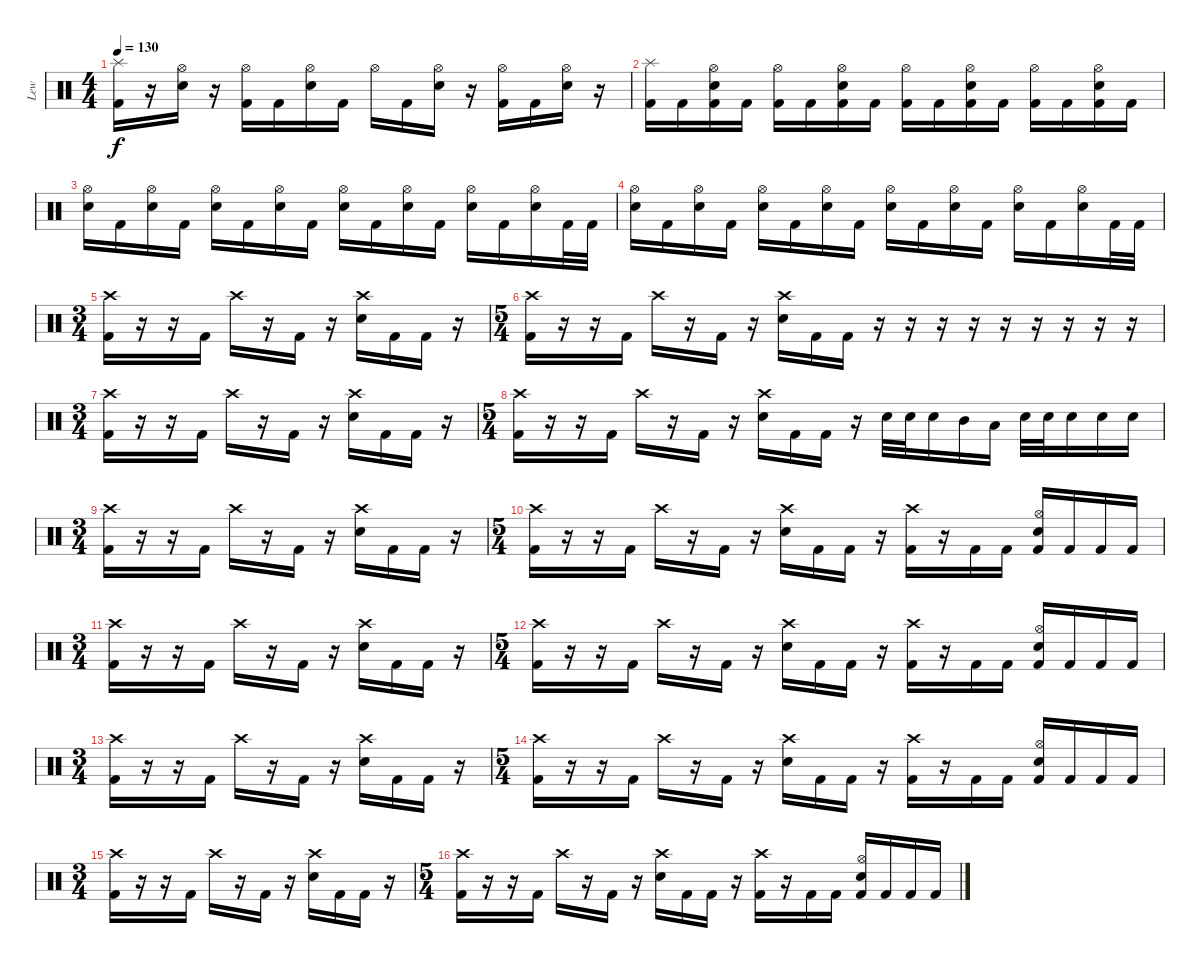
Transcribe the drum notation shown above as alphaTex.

\track ("Lew" "Lew") {instrument percussion}
\staff {score}
\articulation defaults
\ts (4 4)
\tempo 130
\clef neutral
\ks c
("Splash (hit)" "Kick (hit) 2").16{dy f} r.16 ("Hi-Hat (open)" "Electric Snare (hit)").16 r.16 ("Hi-Hat (open)" "Kick (hit) 2").16 "Kick (hit) 2".16 ("Hi-Hat (open)" "Electric Snare (hit)").16 "Kick (hit) 2".16 "Hi-Hat (open)".16 "Kick (hit) 2".16 ("Hi-Hat (open)" "Electric Snare (hit)").16 r.16 ("Hi-Hat (open)" "Kick (hit) 2").16 "Kick (hit) 2".16 ("Hi-Hat (open)" "Electric Snare (hit)").16 r.16 |
("Splash (hit)" "Kick (hit) 2").16 "Kick (hit) 2".16 ("Hi-Hat (open)" "Electric Snare (hit)" "Kick (hit) 2").16 "Kick (hit) 2".16 ("Hi-Hat (open)" "Kick (hit) 2").16 "Kick (hit) 2".16 ("Hi-Hat (open)" "Electric Snare (hit)" "Kick (hit) 2").16 "Kick (hit) 2".16 ("Hi-Hat (open)" "Kick (hit) 2").16 "Kick (hit) 2".16 ("Hi-Hat (open)" "Electric Snare (hit)" "Kick (hit) 2").16 "Kick (hit) 2".16 ("Hi-Hat (open)" "Kick (hit) 2").16 "Kick (hit) 2".16 ("Hi-Hat (open)" "Electric Snare (hit)" "Kick (hit) 2").16 "Kick (hit) 2".16 |
("Hi-Hat (open)" "Electric Snare (hit)").16 "Kick (hit) 2".16 ("Hi-Hat (open)" "Electric Snare (hit)").16 "Kick (hit) 2".16 ("Hi-Hat (open)" "Electric Snare (hit)").16 "Kick (hit) 2".16 ("Hi-Hat (open)" "Electric Snare (hit)").16 "Kick (hit) 2".16 ("Hi-Hat (open)" "Electric Snare (hit)").16 "Kick (hit) 2".16 ("Hi-Hat (open)" "Electric Snare (hit)").16 "Kick (hit) 2".16 ("Hi-Hat (open)" "Electric Snare (hit)").16 "Kick (hit) 2".16 ("Hi-Hat (open)" "Electric Snare (hit)").16 "Kick (hit) 2".32 "Kick (hit) 2".32 |
("Hi-Hat (open)" "Electric Snare (hit)").16 "Kick (hit) 2".16 ("Hi-Hat (open)" "Electric Snare (hit)").16 "Kick (hit) 2".16 ("Hi-Hat (open)" "Electric Snare (hit)").16 "Kick (hit) 2".16 ("Hi-Hat (open)" "Electric Snare (hit)").16 "Kick (hit) 2".16 ("Hi-Hat (open)" "Electric Snare (hit)").16 "Kick (hit) 2".16 ("Hi-Hat (open)" "Electric Snare (hit)").16 "Kick (hit) 2".16 ("Hi-Hat (open)" "Electric Snare (hit)").16 "Kick (hit) 2".16 ("Hi-Hat (open)" "Electric Snare (hit)").16 "Kick (hit) 2".32 "Kick (hit) 2".32 |
\ts (3 4)
("Crash high (hit)" "Kick (hit) 2").16 r.16 r.16 "Kick (hit) 2".16 "Crash high (hit)".16 r.16 "Kick (hit) 2".16 r.16 ("Crash high (hit)" "Electric Snare (hit)").16 "Kick (hit) 2".16 "Kick (hit) 2".16 r.16 |
\ts (5 4)
("Crash high (hit)" "Kick (hit) 2").16 r.16 r.16 "Kick (hit) 2".16 "Crash high (hit)".16 r.16 "Kick (hit) 2".16 r.16 ("Crash high (hit)" "Electric Snare (hit)").16 "Kick (hit) 2".16 "Kick (hit) 2".16 r.16 r.16 r.16 r.16 r.16 r.16 r.16 r.16 r.16 |
\ts (3 4)
("Crash high (hit)" "Kick (hit) 2").16 r.16 r.16 "Kick (hit) 2".16 "Crash high (hit)".16 r.16 "Kick (hit) 2".16 r.16 ("Crash high (hit)" "Electric Snare (hit)").16 "Kick (hit) 2".16 "Kick (hit) 2".16 r.16 |
\ts (5 4)
("Crash high (hit)" "Kick (hit) 2").16 r.16 r.16 "Kick (hit) 2".16 "Crash high (hit)".16 r.16 "Kick (hit) 2".16 r.16 ("Crash high (hit)" "Electric Snare (hit)").16 "Kick (hit) 2".16 "Kick (hit) 2".16 r.16 "Electric Snare (hit)".32 "Electric Snare (hit)".32 "Electric Snare (hit)".16 "Mid Tom (hit)".16 "Low Tom (hit)".16 "Electric Snare (hit)".32 "Electric Snare (hit)".32 "Electric Snare (hit)".16 "Electric Snare (hit)".16 "Electric Snare (hit)".16 |
\ts (3 4)
("Crash high (hit)" "Kick (hit) 2").16 r.16 r.16 "Kick (hit) 2".16 "Crash high (hit)".16 r.16 "Kick (hit) 2".16 r.16 ("Crash high (hit)" "Electric Snare (hit)").16 "Kick (hit) 2".16 "Kick (hit) 2".16 r.16 |
\ts (5 4)
("Crash high (hit)" "Kick (hit) 2").16 r.16 r.16 "Kick (hit) 2".16 "Crash high (hit)".16 r.16 "Kick (hit) 2".16 r.16 ("Crash high (hit)" "Electric Snare (hit)").16 "Kick (hit) 2".16 "Kick (hit) 2".16 r.16 ("Crash high (hit)" "Kick (hit) 2").16 r.16 "Kick (hit) 2".16 "Kick (hit) 2".16 ("Hi-Hat (open)" "Electric Snare (hit)" "Kick (hit) 2").16 "Kick (hit) 2".16 "Kick (hit) 2".16 "Kick (hit) 2".16 |
\ts (3 4)
("Crash high (hit)" "Kick (hit) 2").16 r.16 r.16 "Kick (hit) 2".16 "Crash high (hit)".16 r.16 "Kick (hit) 2".16 r.16 ("Crash high (hit)" "Electric Snare (hit)").16 "Kick (hit) 2".16 "Kick (hit) 2".16 r.16 |
\ts (5 4)
("Crash high (hit)" "Kick (hit) 2").16 r.16 r.16 "Kick (hit) 2".16 "Crash high (hit)".16 r.16 "Kick (hit) 2".16 r.16 ("Crash high (hit)" "Electric Snare (hit)").16 "Kick (hit) 2".16 "Kick (hit) 2".16 r.16 ("Crash high (hit)" "Kick (hit) 2").16 r.16 "Kick (hit) 2".16 "Kick (hit) 2".16 ("Hi-Hat (open)" "Electric Snare (hit)" "Kick (hit) 2").16 "Kick (hit) 2".16 "Kick (hit) 2".16 "Kick (hit) 2".16 |
\ts (3 4)
("Crash high (hit)" "Kick (hit) 2").16 r.16 r.16 "Kick (hit) 2".16 "Crash high (hit)".16 r.16 "Kick (hit) 2".16 r.16 ("Crash high (hit)" "Electric Snare (hit)").16 "Kick (hit) 2".16 "Kick (hit) 2".16 r.16 |
\ts (5 4)
("Crash high (hit)" "Kick (hit) 2").16 r.16 r.16 "Kick (hit) 2".16 "Crash high (hit)".16 r.16 "Kick (hit) 2".16 r.16 ("Crash high (hit)" "Electric Snare (hit)").16 "Kick (hit) 2".16 "Kick (hit) 2".16 r.16 ("Crash high (hit)" "Kick (hit) 2").16 r.16 "Kick (hit) 2".16 "Kick (hit) 2".16 ("Hi-Hat (open)" "Electric Snare (hit)" "Kick (hit) 2").16 "Kick (hit) 2".16 "Kick (hit) 2".16 "Kick (hit) 2".16 |
\ts (3 4)
("Crash high (hit)" "Kick (hit) 2").16 r.16 r.16 "Kick (hit) 2".16 "Crash high (hit)".16 r.16 "Kick (hit) 2".16 r.16 ("Crash high (hit)" "Electric Snare (hit)").16 "Kick (hit) 2".16 "Kick (hit) 2".16 r.16 |
\ts (5 4)
("Crash high (hit)" "Kick (hit) 2").16 r.16 r.16 "Kick (hit) 2".16 "Crash high (hit)".16 r.16 "Kick (hit) 2".16 r.16 ("Crash high (hit)" "Electric Snare (hit)").16 "Kick (hit) 2".16 "Kick (hit) 2".16 r.16 ("Crash high (hit)" "Kick (hit) 2").16 r.16 "Kick (hit) 2".16 "Kick (hit) 2".16 ("Hi-Hat (open)" "Electric Snare (hit)" "Kick (hit) 2").16 "Kick (hit) 2".16 "Kick (hit) 2".16 "Kick (hit) 2".16
